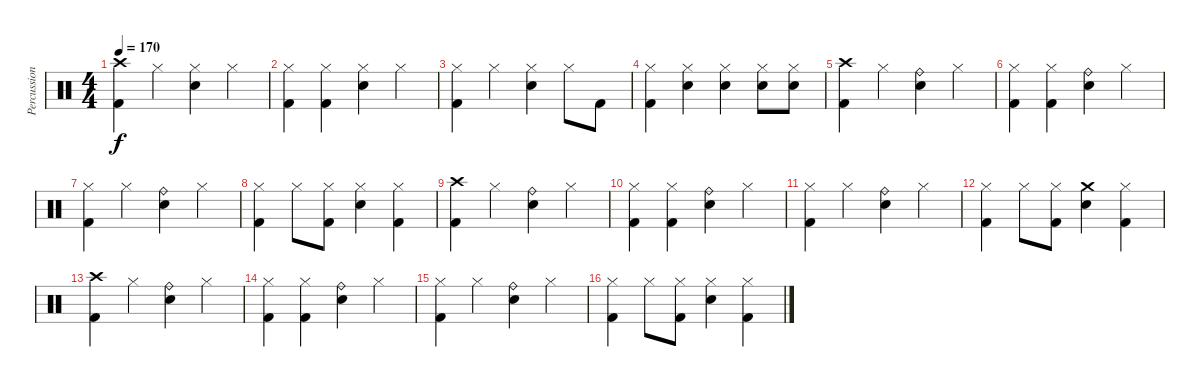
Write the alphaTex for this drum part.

\track ("Percussion" "Percussion") {instrument percussion}
\staff {score}
\articulation defaults
\ts (4 4)
\tempo 170
\clef neutral
\ks c
("Crash high (hit)" "Kick (hit) 2").4{dy f} "Hi-Hat (closed)".4 ("Hi-Hat (closed)" "Snare (hit) 2").4 "Hi-Hat (closed)".4 |
("Hi-Hat (closed)" "Kick (hit) 2").4 ("Hi-Hat (closed)" "Kick (hit) 2").4 ("Hi-Hat (closed)" "Snare (hit) 2").4 "Hi-Hat (closed)".4 |
("Hi-Hat (closed)" "Kick (hit) 2").4 "Hi-Hat (closed)".4 ("Hi-Hat (closed)" "Snare (hit) 2").4 "Hi-Hat (closed)".8 "Kick (hit) 2".8 |
("Hi-Hat (closed)" "Kick (hit) 2").4 ("Hi-Hat (closed)" "Snare (hit) 2").4 ("Hi-Hat (closed)" "Snare (hit) 2").4 ("Hi-Hat (closed)" "Snare (hit) 2").8 ("Hi-Hat (closed)" "Snare (hit) 2").8 |
("Crash high (hit)" "Kick (hit) 2").4 "Hi-Hat (closed)".4 ("Ride (bell)" "Snare (hit) 2").4 "Hi-Hat (closed)".4 |
("Hi-Hat (closed)" "Kick (hit) 2").4 ("Hi-Hat (closed)" "Kick (hit) 2").4 ("Ride (bell)" "Snare (hit) 2").4 "Hi-Hat (closed)".4 |
("Hi-Hat (closed)" "Kick (hit) 2").4 "Hi-Hat (closed)".4 ("Ride (bell)" "Snare (hit) 2").4 "Hi-Hat (closed)".4 |
("Hi-Hat (closed)" "Kick (hit) 2").4 "Hi-Hat (closed)".8 ("Hi-Hat (closed)" "Kick (hit) 2").8 ("Hi-Hat (closed)" "Snare (hit) 2").4 ("Hi-Hat (closed)" "Kick (hit) 2").4 |
("Crash high (hit)" "Kick (hit) 2").4 "Hi-Hat (closed)".4 ("Ride (bell)" "Snare (hit) 2").4 "Hi-Hat (closed)".4 |
("Hi-Hat (closed)" "Kick (hit) 2").4 ("Hi-Hat (closed)" "Kick (hit) 2").4 ("Ride (bell)" "Snare (hit) 2").4 "Hi-Hat (closed)".4 |
("Hi-Hat (closed)" "Kick (hit) 2").4 "Hi-Hat (closed)".4 ("Ride (bell)" "Snare (hit) 2").4 "Hi-Hat (closed)".4 |
("Hi-Hat (closed)" "Kick (hit) 2").4 "Hi-Hat (closed)".8 ("Hi-Hat (closed)" "Kick (hit) 2").8 ("Crash medium (hit)" "Snare (hit) 2").4 ("Hi-Hat (closed)" "Kick (hit) 2").4 |
("Crash high (hit)" "Kick (hit) 2").4 "Hi-Hat (closed)".4 ("Ride (bell)" "Snare (hit) 2").4 "Hi-Hat (closed)".4 |
("Hi-Hat (closed)" "Kick (hit) 2").4 ("Hi-Hat (closed)" "Kick (hit) 2").4 ("Ride (bell)" "Snare (hit) 2").4 "Hi-Hat (closed)".4 |
("Hi-Hat (closed)" "Kick (hit) 2").4 "Hi-Hat (closed)".4 ("Ride (bell)" "Snare (hit) 2").4 "Hi-Hat (closed)".4 |
("Hi-Hat (closed)" "Kick (hit) 2").4 "Hi-Hat (closed)".8 ("Hi-Hat (closed)" "Kick (hit) 2").8 ("Hi-Hat (closed)" "Snare (hit) 2").4 ("Hi-Hat (closed)" "Kick (hit) 2").4
